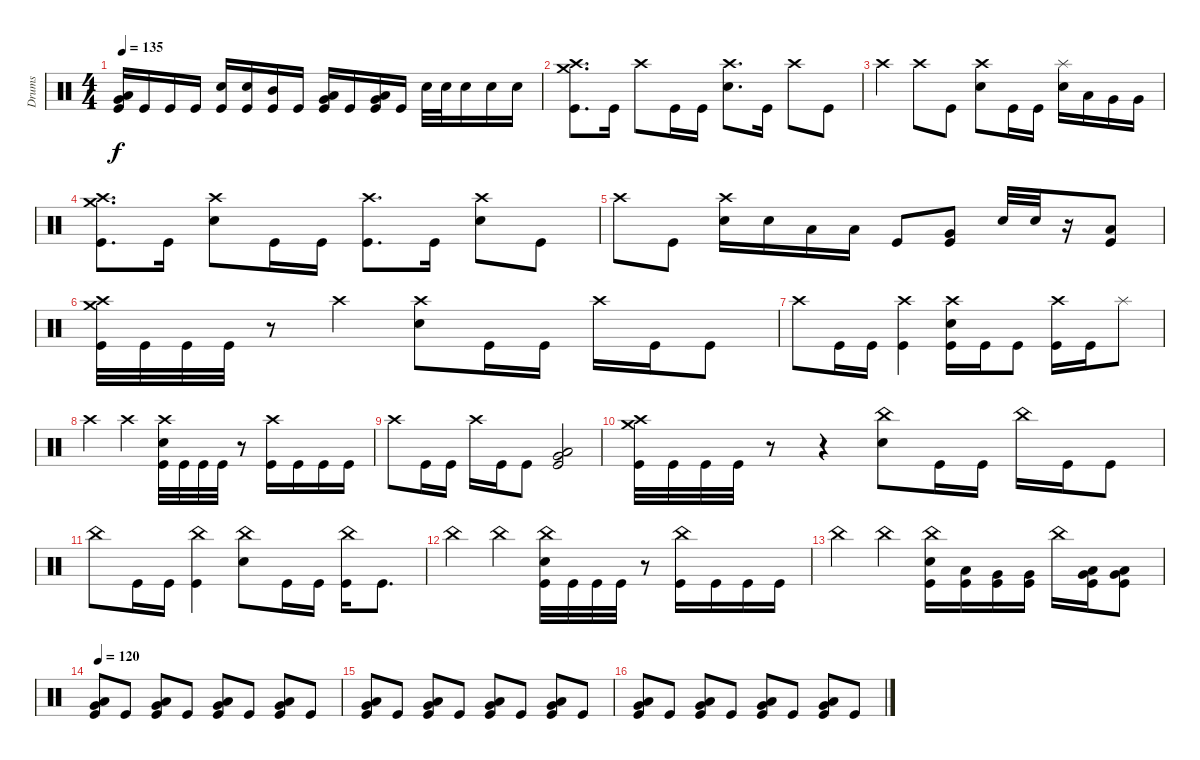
\track ("Drums" "Drums") {instrument percussion}
\staff {score}
\articulation defaults
\ts (4 4)
\tempo 135
\clef neutral
\ks c
("Low Tom (hit)" "Very Low Tom (hit)" "Kick (hit)").16{dy f} "Kick (hit)".16 "Kick (hit)".16 "Kick (hit)".16 ("Snare (hit) 2" "Kick (hit)").16 ("Snare (hit) 2" "Kick (hit)").16 ("Mid Tom (hit)" "Kick (hit)").16 "Kick (hit)".16 ("Low Tom (hit)" "Very Low Tom (hit)" "Kick (hit)").16 "Kick (hit)".16 ("Low Tom (hit)" "Very Low Tom (hit)" "Kick (hit)").16 "Kick (hit)".16 "Snare (hit) 2".32 "Snare (hit) 2".32 "Snare (hit) 2".16 "Snare (hit) 2".16 "Snare (hit) 2".16 |
("Crash high (hit)" "Crash medium (hit)" "Kick (hit)").8{d} "Kick (hit)".16 "Crash high (hit)".8 "Kick (hit)".16 "Kick (hit)".16 ("Crash high (hit)" "Snare (hit) 2").8{d} "Kick (hit)".16 "Crash high (hit)".8 "Kick (hit)".8 |
"Crash high (hit)".4 "Crash high (hit)".8 "Kick (hit)".8 ("Crash high (hit)" "Snare (hit) 2").8 "Kick (hit)".16 "Kick (hit)".16 ("Splash (hit)" "Snare (hit) 2").16 "Low Tom (hit)".16 "Very Low Tom (hit)".16 "Very Low Tom (hit)".16 |
("Crash high (hit)" "Crash medium (hit)" "Kick (hit)").8{d} "Kick (hit)".16 ("Crash high (hit)" "Snare (hit) 2").8 "Kick (hit)".16 "Kick (hit)".16 ("Crash high (hit)" "Kick (hit)").8{d} "Kick (hit)".16 ("Crash high (hit)" "Snare (hit) 2").8 "Kick (hit)".8 |
"Crash high (hit)".8 "Kick (hit)".8 ("Crash high (hit)" "Snare (hit) 2").16 "Snare (hit) 2".16 "Low Tom (hit)".16 "Low Tom (hit)".16 "Kick (hit)".8 ("Very Low Tom (hit)" "Kick (hit)").8 "Snare (hit) 2".32 "Snare (hit) 2".32 r.16 ("Low Floor Tom (hit)" "Kick (hit)").8 |
("Crash high (hit)" "Crash medium (hit)" "Kick (hit)").32 "Kick (hit)".32 "Kick (hit)".32 "Kick (hit)".32 r.8 "Crash high (hit)".4 ("Crash high (hit)" "Snare (hit) 2").8 "Kick (hit)".16 "Kick (hit)".16 "Crash high (hit)".16 "Kick (hit)".16 "Kick (hit)".8 |
"Crash high (hit)".8 "Kick (hit)".16 "Kick (hit)".16 ("Crash high (hit)" "Kick (hit)").4 ("Crash high (hit)" "Snare (hit) 2" "Kick (hit)").16 "Kick (hit)".16 "Kick (hit)".8 ("Crash high (hit)" "Kick (hit)").16 "Kick (hit)".16 "Splash (hit)".8 |
"Crash high (hit)".4 "Crash high (hit)".4 ("Crash high (hit)" "Snare (hit) 2" "Kick (hit)").32 "Kick (hit)".32 "Kick (hit)".32 "Kick (hit)".32 r.8 ("Crash high (hit)" "Kick (hit)").16 "Kick (hit)".16 "Kick (hit)".16 "Kick (hit)".16 |
"Crash high (hit)".8 "Kick (hit)".16 "Kick (hit)".16 "Crash high (hit)".16 "Kick (hit)".16 "Kick (hit)".8 ("Very Low Tom (hit)" "Low Floor Tom (hit)" "Kick (hit)").2 |
("Crash high (hit)" "Crash medium (hit)" "Kick (hit)").32 "Kick (hit)".32 "Kick (hit)".32 "Kick (hit)".32 r.8 r.4 ("China (hit)" "Snare (hit) 2").8 "Kick (hit)".16 "Kick (hit)".16 "China (hit)".16 "Kick (hit)".16 "Kick (hit)".8 |
"China (hit)".8 "Kick (hit)".16 "Kick (hit)".16 ("China (hit)" "Kick (hit)").4 ("China (hit)" "Snare (hit) 2").8 "Kick (hit)".16 "Kick (hit)".16 ("China (hit)" "Kick (hit)").16 "Kick (hit)".8{d} |
"China (hit)".4 "China (hit)".4 ("China (hit)" "Snare (hit) 2" "Kick (hit)").32 "Kick (hit)".32 "Kick (hit)".32 "Kick (hit)".32 r.8 ("China (hit)" "Kick (hit)").16 "Kick (hit)".16 "Kick (hit)".16 "Kick (hit)".16 |
"China (hit)".4 "China (hit)".4 ("China (hit)" "Snare (hit) 2" "Kick (hit)").16 ("Low Tom (hit)" "Kick (hit)").16 ("Very Low Tom (hit)" "Kick (hit)").16 ("Very Low Tom (hit)" "Kick (hit)").16 "China (hit)".16 ("Very Low Tom (hit)" "Low Floor Tom (hit)" "Kick (hit)").16 ("Very Low Tom (hit)" "Low Floor Tom (hit)" "Kick (hit)").8 |
\tempo 120
("Low Tom (hit)" "Very Low Tom (hit)" "Kick (hit)").8 "Kick (hit)".8 ("Low Tom (hit)" "Very Low Tom (hit)" "Kick (hit)").8 "Kick (hit)".8 ("Low Tom (hit)" "Very Low Tom (hit)" "Kick (hit)").8 "Kick (hit)".8 ("Low Tom (hit)" "Very Low Tom (hit)" "Kick (hit)").8 "Kick (hit)".8 |
("Low Tom (hit)" "Very Low Tom (hit)" "Kick (hit)").8 "Kick (hit)".8 ("Low Tom (hit)" "Very Low Tom (hit)" "Kick (hit)").8 "Kick (hit)".8 ("Low Tom (hit)" "Very Low Tom (hit)" "Kick (hit)").8 "Kick (hit)".8 ("Low Tom (hit)" "Very Low Tom (hit)" "Kick (hit)").8 "Kick (hit)".8 |
("Low Tom (hit)" "Very Low Tom (hit)" "Kick (hit)").8 "Kick (hit)".8 ("Low Tom (hit)" "Very Low Tom (hit)" "Kick (hit)").8 "Kick (hit)".8 ("Low Tom (hit)" "Very Low Tom (hit)" "Kick (hit)").8 "Kick (hit)".8 ("Low Tom (hit)" "Very Low Tom (hit)" "Kick (hit)").8 "Kick (hit)".8
